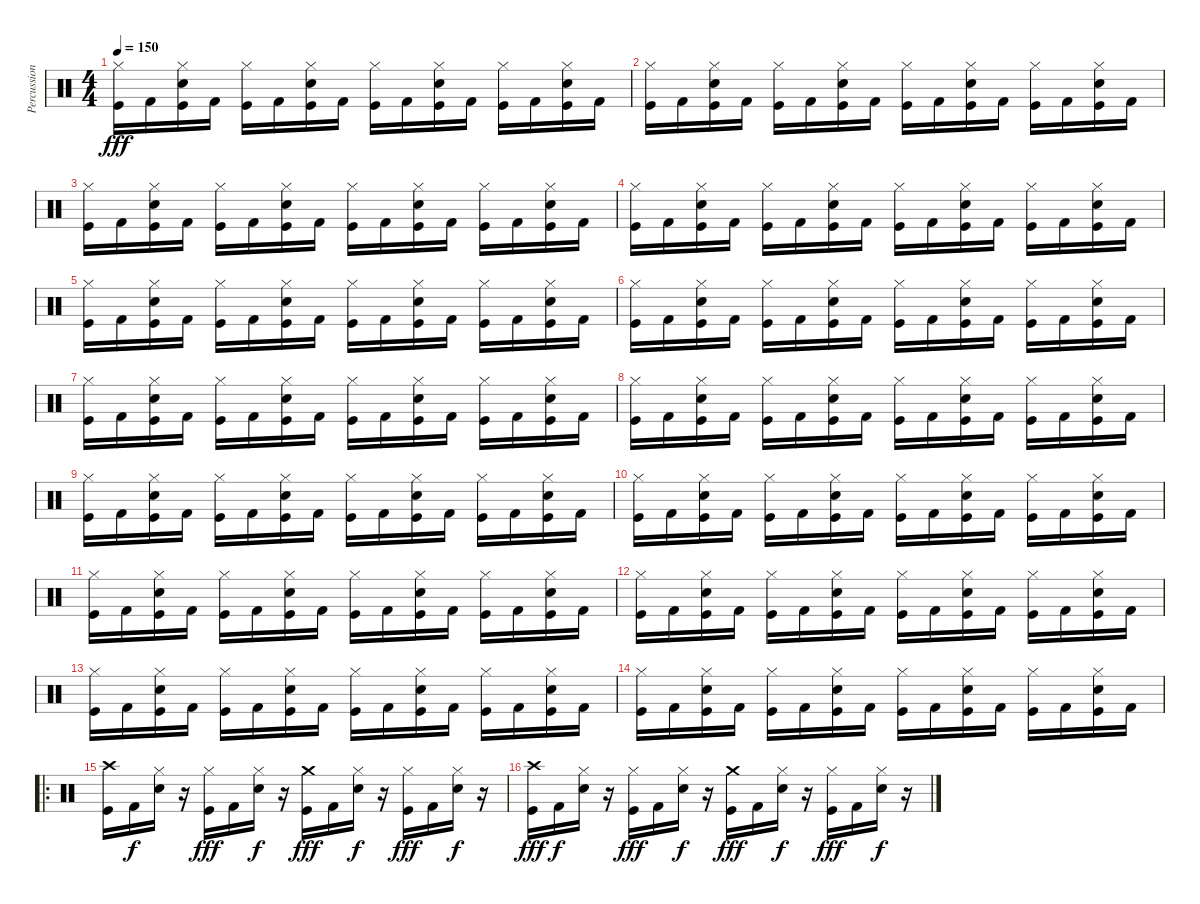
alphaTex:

\track ("Percussion" "Percussion") {instrument percussion}
\staff {score}
\articulation defaults
\ts (4 4)
\tempo 150
\clef neutral
\ks c
("Hi-Hat (closed)" "Kick (hit)").16{dy fff} "Kick (hit) 2".16 ("Hi-Hat (closed)" "Electric Snare (hit)" "Kick (hit)").16 "Kick (hit) 2".16 ("Hi-Hat (closed)" "Kick (hit)").16 "Kick (hit) 2".16 ("Hi-Hat (closed)" "Electric Snare (hit)" "Kick (hit)").16 "Kick (hit) 2".16 ("Hi-Hat (closed)" "Kick (hit)").16 "Kick (hit) 2".16 ("Hi-Hat (closed)" "Electric Snare (hit)" "Kick (hit)").16 "Kick (hit) 2".16 ("Hi-Hat (closed)" "Kick (hit)").16 "Kick (hit) 2".16 ("Hi-Hat (closed)" "Electric Snare (hit)" "Kick (hit)").16 "Kick (hit) 2".16 |
("Hi-Hat (closed)" "Kick (hit)").16 "Kick (hit) 2".16 ("Hi-Hat (closed)" "Electric Snare (hit)" "Kick (hit)").16 "Kick (hit) 2".16 ("Hi-Hat (closed)" "Kick (hit)").16 "Kick (hit) 2".16 ("Hi-Hat (closed)" "Electric Snare (hit)" "Kick (hit)").16 "Kick (hit) 2".16 ("Hi-Hat (closed)" "Kick (hit)").16 "Kick (hit) 2".16 ("Hi-Hat (closed)" "Electric Snare (hit)" "Kick (hit)").16 "Kick (hit) 2".16 ("Hi-Hat (closed)" "Kick (hit)").16 "Kick (hit) 2".16 ("Hi-Hat (closed)" "Electric Snare (hit)" "Kick (hit)").16 "Kick (hit) 2".16 |
("Hi-Hat (closed)" "Kick (hit)").16 "Kick (hit) 2".16 ("Hi-Hat (closed)" "Electric Snare (hit)" "Kick (hit)").16 "Kick (hit) 2".16 ("Hi-Hat (closed)" "Kick (hit)").16 "Kick (hit) 2".16 ("Hi-Hat (closed)" "Electric Snare (hit)" "Kick (hit)").16 "Kick (hit) 2".16 ("Hi-Hat (closed)" "Kick (hit)").16 "Kick (hit) 2".16 ("Hi-Hat (closed)" "Electric Snare (hit)" "Kick (hit)").16 "Kick (hit) 2".16 ("Hi-Hat (closed)" "Kick (hit)").16 "Kick (hit) 2".16 ("Hi-Hat (closed)" "Electric Snare (hit)" "Kick (hit)").16 "Kick (hit) 2".16 |
("Hi-Hat (closed)" "Kick (hit)").16 "Kick (hit) 2".16 ("Hi-Hat (closed)" "Electric Snare (hit)" "Kick (hit)").16 "Kick (hit) 2".16 ("Hi-Hat (closed)" "Kick (hit)").16 "Kick (hit) 2".16 ("Hi-Hat (closed)" "Electric Snare (hit)" "Kick (hit)").16 "Kick (hit) 2".16 ("Hi-Hat (closed)" "Kick (hit)").16 "Kick (hit) 2".16 ("Hi-Hat (closed)" "Electric Snare (hit)" "Kick (hit)").16 "Kick (hit) 2".16 ("Hi-Hat (closed)" "Kick (hit)").16 "Kick (hit) 2".16 ("Hi-Hat (closed)" "Electric Snare (hit)" "Kick (hit)").16 "Kick (hit) 2".16 |
("Hi-Hat (closed)" "Kick (hit)").16 "Kick (hit) 2".16 ("Hi-Hat (closed)" "Electric Snare (hit)" "Kick (hit)").16 "Kick (hit) 2".16 ("Hi-Hat (closed)" "Kick (hit)").16 "Kick (hit) 2".16 ("Hi-Hat (closed)" "Electric Snare (hit)" "Kick (hit)").16 "Kick (hit) 2".16 ("Hi-Hat (closed)" "Kick (hit)").16 "Kick (hit) 2".16 ("Hi-Hat (closed)" "Electric Snare (hit)" "Kick (hit)").16 "Kick (hit) 2".16 ("Hi-Hat (closed)" "Kick (hit)").16 "Kick (hit) 2".16 ("Hi-Hat (closed)" "Electric Snare (hit)" "Kick (hit)").16 "Kick (hit) 2".16 |
("Hi-Hat (closed)" "Kick (hit)").16 "Kick (hit) 2".16 ("Hi-Hat (closed)" "Electric Snare (hit)" "Kick (hit)").16 "Kick (hit) 2".16 ("Hi-Hat (closed)" "Kick (hit)").16 "Kick (hit) 2".16 ("Hi-Hat (closed)" "Electric Snare (hit)" "Kick (hit)").16 "Kick (hit) 2".16 ("Hi-Hat (closed)" "Kick (hit)").16 "Kick (hit) 2".16 ("Hi-Hat (closed)" "Electric Snare (hit)" "Kick (hit)").16 "Kick (hit) 2".16 ("Hi-Hat (closed)" "Kick (hit)").16 "Kick (hit) 2".16 ("Hi-Hat (closed)" "Electric Snare (hit)" "Kick (hit)").16 "Kick (hit) 2".16 |
("Hi-Hat (closed)" "Kick (hit)").16 "Kick (hit) 2".16 ("Hi-Hat (closed)" "Electric Snare (hit)" "Kick (hit)").16 "Kick (hit) 2".16 ("Hi-Hat (closed)" "Kick (hit)").16 "Kick (hit) 2".16 ("Hi-Hat (closed)" "Electric Snare (hit)" "Kick (hit)").16 "Kick (hit) 2".16 ("Hi-Hat (closed)" "Kick (hit)").16 "Kick (hit) 2".16 ("Hi-Hat (closed)" "Electric Snare (hit)" "Kick (hit)").16 "Kick (hit) 2".16 ("Hi-Hat (closed)" "Kick (hit)").16 "Kick (hit) 2".16 ("Hi-Hat (closed)" "Electric Snare (hit)" "Kick (hit)").16 "Kick (hit) 2".16 |
("Hi-Hat (closed)" "Kick (hit)").16 "Kick (hit) 2".16 ("Hi-Hat (closed)" "Electric Snare (hit)" "Kick (hit)").16 "Kick (hit) 2".16 ("Hi-Hat (closed)" "Kick (hit)").16 "Kick (hit) 2".16 ("Hi-Hat (closed)" "Electric Snare (hit)" "Kick (hit)").16 "Kick (hit) 2".16 ("Hi-Hat (closed)" "Kick (hit)").16 "Kick (hit) 2".16 ("Hi-Hat (closed)" "Electric Snare (hit)" "Kick (hit)").16 "Kick (hit) 2".16 ("Hi-Hat (closed)" "Kick (hit)").16 "Kick (hit) 2".16 ("Hi-Hat (closed)" "Electric Snare (hit)" "Kick (hit)").16 "Kick (hit) 2".16 |
("Hi-Hat (closed)" "Kick (hit)").16 "Kick (hit) 2".16 ("Hi-Hat (closed)" "Electric Snare (hit)" "Kick (hit)").16 "Kick (hit) 2".16 ("Hi-Hat (closed)" "Kick (hit)").16 "Kick (hit) 2".16 ("Hi-Hat (closed)" "Electric Snare (hit)" "Kick (hit)").16 "Kick (hit) 2".16 ("Hi-Hat (closed)" "Kick (hit)").16 "Kick (hit) 2".16 ("Hi-Hat (closed)" "Electric Snare (hit)" "Kick (hit)").16 "Kick (hit) 2".16 ("Hi-Hat (closed)" "Kick (hit)").16 "Kick (hit) 2".16 ("Hi-Hat (closed)" "Electric Snare (hit)" "Kick (hit)").16 "Kick (hit) 2".16 |
("Hi-Hat (closed)" "Kick (hit)").16 "Kick (hit) 2".16 ("Hi-Hat (closed)" "Electric Snare (hit)" "Kick (hit)").16 "Kick (hit) 2".16 ("Hi-Hat (closed)" "Kick (hit)").16 "Kick (hit) 2".16 ("Hi-Hat (closed)" "Electric Snare (hit)" "Kick (hit)").16 "Kick (hit) 2".16 ("Hi-Hat (closed)" "Kick (hit)").16 "Kick (hit) 2".16 ("Hi-Hat (closed)" "Electric Snare (hit)" "Kick (hit)").16 "Kick (hit) 2".16 ("Hi-Hat (closed)" "Kick (hit)").16 "Kick (hit) 2".16 ("Hi-Hat (closed)" "Electric Snare (hit)" "Kick (hit)").16 "Kick (hit) 2".16 |
("Hi-Hat (closed)" "Kick (hit)").16 "Kick (hit) 2".16 ("Hi-Hat (closed)" "Electric Snare (hit)" "Kick (hit)").16 "Kick (hit) 2".16 ("Hi-Hat (closed)" "Kick (hit)").16 "Kick (hit) 2".16 ("Hi-Hat (closed)" "Electric Snare (hit)" "Kick (hit)").16 "Kick (hit) 2".16 ("Hi-Hat (closed)" "Kick (hit)").16 "Kick (hit) 2".16 ("Hi-Hat (closed)" "Electric Snare (hit)" "Kick (hit)").16 "Kick (hit) 2".16 ("Hi-Hat (closed)" "Kick (hit)").16 "Kick (hit) 2".16 ("Hi-Hat (closed)" "Electric Snare (hit)" "Kick (hit)").16 "Kick (hit) 2".16 |
("Hi-Hat (closed)" "Kick (hit)").16 "Kick (hit) 2".16 ("Hi-Hat (closed)" "Electric Snare (hit)" "Kick (hit)").16 "Kick (hit) 2".16 ("Hi-Hat (closed)" "Kick (hit)").16 "Kick (hit) 2".16 ("Hi-Hat (closed)" "Electric Snare (hit)" "Kick (hit)").16 "Kick (hit) 2".16 ("Hi-Hat (closed)" "Kick (hit)").16 "Kick (hit) 2".16 ("Hi-Hat (closed)" "Electric Snare (hit)" "Kick (hit)").16 "Kick (hit) 2".16 ("Hi-Hat (closed)" "Kick (hit)").16 "Kick (hit) 2".16 ("Hi-Hat (closed)" "Electric Snare (hit)" "Kick (hit)").16 "Kick (hit) 2".16 |
("Hi-Hat (closed)" "Kick (hit)").16 "Kick (hit) 2".16 ("Hi-Hat (closed)" "Electric Snare (hit)" "Kick (hit)").16 "Kick (hit) 2".16 ("Hi-Hat (closed)" "Kick (hit)").16 "Kick (hit) 2".16 ("Hi-Hat (closed)" "Electric Snare (hit)" "Kick (hit)").16 "Kick (hit) 2".16 ("Hi-Hat (closed)" "Kick (hit)").16 "Kick (hit) 2".16 ("Hi-Hat (closed)" "Electric Snare (hit)" "Kick (hit)").16 "Kick (hit) 2".16 ("Hi-Hat (closed)" "Kick (hit)").16 "Kick (hit) 2".16 ("Hi-Hat (closed)" "Electric Snare (hit)" "Kick (hit)").16 "Kick (hit) 2".16 |
("Hi-Hat (closed)" "Kick (hit)").16 "Kick (hit) 2".16 ("Hi-Hat (closed)" "Electric Snare (hit)" "Kick (hit)").16 "Kick (hit) 2".16 ("Hi-Hat (closed)" "Kick (hit)").16 "Kick (hit) 2".16 ("Hi-Hat (closed)" "Electric Snare (hit)" "Kick (hit)").16 "Kick (hit) 2".16 ("Hi-Hat (closed)" "Kick (hit)").16 "Kick (hit) 2".16 ("Hi-Hat (closed)" "Electric Snare (hit)" "Kick (hit)").16 "Kick (hit) 2".16 ("Hi-Hat (closed)" "Kick (hit)").16 "Kick (hit) 2".16 ("Hi-Hat (closed)" "Electric Snare (hit)" "Kick (hit)").16 "Kick (hit) 2".16 |
\ro
("Crash high (hit)" "Kick (hit)").16 "Kick (hit) 2".16{dy f} ("Hi-Hat (closed)" "Electric Snare (hit)").16 r.16 ("Hi-Hat (closed)" "Kick (hit)").16{dy fff} "Kick (hit) 2".16 ("Hi-Hat (closed)" "Electric Snare (hit)").16{dy f} r.16 ("Crash medium (hit)" "Kick (hit)").16{dy fff} "Kick (hit) 2".16 ("Hi-Hat (closed)" "Electric Snare (hit)").16{dy f} r.16 ("Hi-Hat (closed)" "Kick (hit)").16{dy fff} "Kick (hit) 2".16 ("Hi-Hat (closed)" "Electric Snare (hit)").16{dy f} r.16 |
("Crash high (hit)" "Kick (hit)").16{dy fff} "Kick (hit) 2".16{dy f} ("Hi-Hat (closed)" "Electric Snare (hit)").16 r.16 ("Hi-Hat (closed)" "Kick (hit)").16{dy fff} "Kick (hit) 2".16 ("Hi-Hat (closed)" "Electric Snare (hit)").16{dy f} r.16 ("Crash medium (hit)" "Kick (hit)").16{dy fff} "Kick (hit) 2".16 ("Hi-Hat (closed)" "Electric Snare (hit)").16{dy f} r.16 ("Hi-Hat (closed)" "Kick (hit)").16{dy fff} "Kick (hit) 2".16 ("Hi-Hat (closed)" "Electric Snare (hit)").16{dy f} r.16
